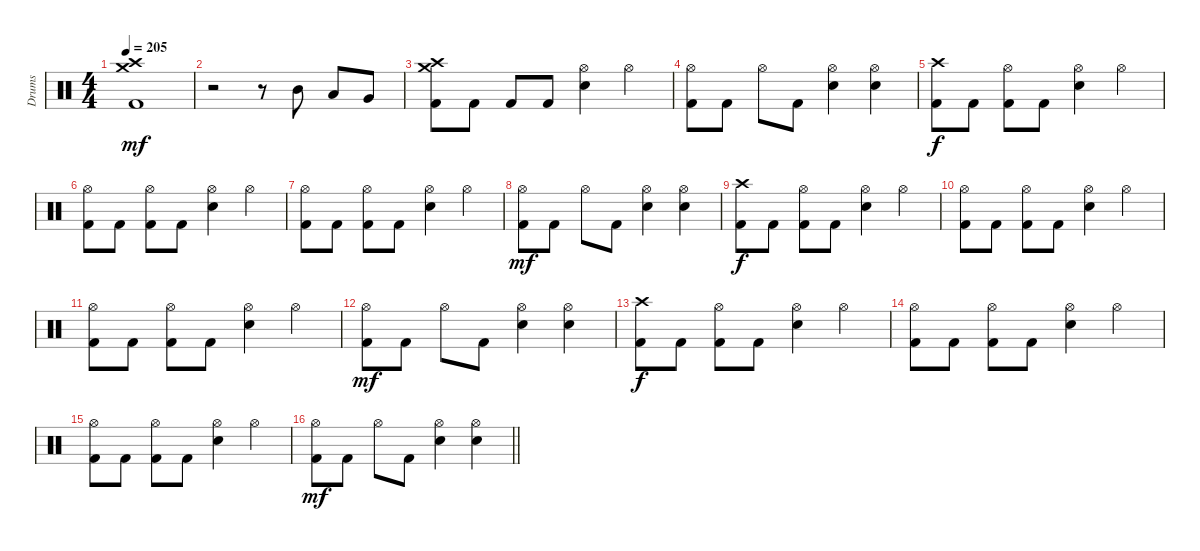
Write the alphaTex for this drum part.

\track ("Drums" "Drums") {instrument percussion}
\staff {score}
\articulation defaults
\ts (4 4)
\tempo 205
\clef neutral
\ks c
("Crash medium (hit)" "Crash high (hit)" "Kick (hit) 2").1{dy mf} |
r.2 r.8 "Mid Tom (hit)".8 "Low Tom (hit)".8 "Very Low Tom (hit)".8 |
("Crash medium (hit)" "Crash high (hit)" "Kick (hit) 2").8 "Kick (hit) 2".8 "Kick (hit) 2".8 "Kick (hit) 2".8 ("Hi-Hat (open)" "Snare (hit) 2").4 "Hi-Hat (open)".4 |
("Hi-Hat (open)" "Kick (hit) 2").8 "Kick (hit) 2".8 "Hi-Hat (open)".8 "Kick (hit) 2".8 ("Hi-Hat (open)" "Snare (hit) 2").4 ("Hi-Hat (open)" "Snare (hit) 2").4 |
("Crash high (hit)" "Kick (hit) 2").8{dy f} "Kick (hit) 2".8 ("Hi-Hat (open)" "Kick (hit) 2").8 "Kick (hit) 2".8 ("Hi-Hat (open)" "Snare (hit) 2").4 "Hi-Hat (open)".4 |
("Hi-Hat (open)" "Kick (hit) 2").8 "Kick (hit) 2".8 ("Hi-Hat (open)" "Kick (hit) 2").8 "Kick (hit) 2".8 ("Hi-Hat (open)" "Snare (hit) 2").4 "Hi-Hat (open)".4 |
("Hi-Hat (open)" "Kick (hit) 2").8 "Kick (hit) 2".8 ("Hi-Hat (open)" "Kick (hit) 2").8 "Kick (hit) 2".8 ("Hi-Hat (open)" "Snare (hit) 2").4 "Hi-Hat (open)".4 |
("Hi-Hat (open)" "Kick (hit) 2").8{dy mf} "Kick (hit) 2".8 "Hi-Hat (open)".8 "Kick (hit) 2".8 ("Hi-Hat (open)" "Snare (hit) 2").4 ("Hi-Hat (open)" "Snare (hit) 2").4 |
("Crash high (hit)" "Kick (hit) 2").8{dy f} "Kick (hit) 2".8 ("Hi-Hat (open)" "Kick (hit) 2").8 "Kick (hit) 2".8 ("Hi-Hat (open)" "Snare (hit) 2").4 "Hi-Hat (open)".4 |
("Hi-Hat (open)" "Kick (hit) 2").8 "Kick (hit) 2".8 ("Hi-Hat (open)" "Kick (hit) 2").8 "Kick (hit) 2".8 ("Hi-Hat (open)" "Snare (hit) 2").4 "Hi-Hat (open)".4 |
("Hi-Hat (open)" "Kick (hit) 2").8 "Kick (hit) 2".8 ("Hi-Hat (open)" "Kick (hit) 2").8 "Kick (hit) 2".8 ("Hi-Hat (open)" "Snare (hit) 2").4 "Hi-Hat (open)".4 |
("Hi-Hat (open)" "Kick (hit) 2").8{dy mf} "Kick (hit) 2".8 "Hi-Hat (open)".8 "Kick (hit) 2".8 ("Hi-Hat (open)" "Snare (hit) 2").4 ("Hi-Hat (open)" "Snare (hit) 2").4 |
("Crash high (hit)" "Kick (hit) 2").8{dy f} "Kick (hit) 2".8 ("Hi-Hat (open)" "Kick (hit) 2").8 "Kick (hit) 2".8 ("Hi-Hat (open)" "Snare (hit) 2").4 "Hi-Hat (open)".4 |
("Hi-Hat (open)" "Kick (hit) 2").8 "Kick (hit) 2".8 ("Hi-Hat (open)" "Kick (hit) 2").8 "Kick (hit) 2".8 ("Hi-Hat (open)" "Snare (hit) 2").4 "Hi-Hat (open)".4 |
("Hi-Hat (open)" "Kick (hit) 2").8 "Kick (hit) 2".8 ("Hi-Hat (open)" "Kick (hit) 2").8 "Kick (hit) 2".8 ("Hi-Hat (open)" "Snare (hit) 2").4 "Hi-Hat (open)".4 |
\barLineRight lightlight
("Hi-Hat (open)" "Kick (hit) 2").8{dy mf} "Kick (hit) 2".8 "Hi-Hat (open)".8 "Kick (hit) 2".8 ("Hi-Hat (open)" "Snare (hit) 2").4 ("Hi-Hat (open)" "Snare (hit) 2").4
